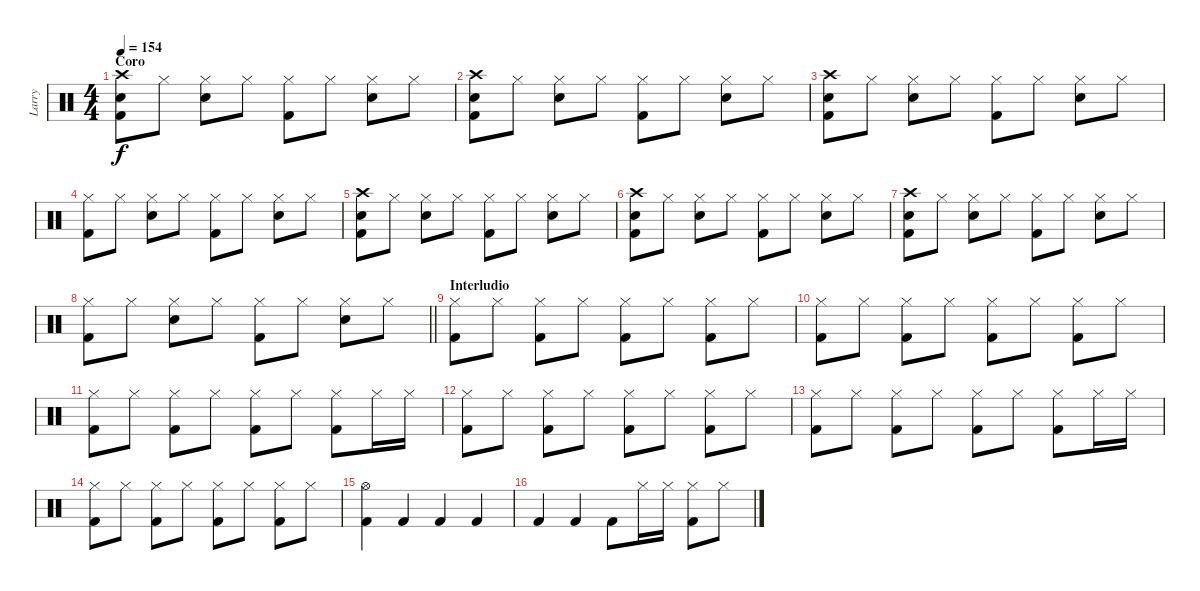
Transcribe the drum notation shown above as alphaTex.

\track ("Larry " "Larry ") {instrument percussion}
\staff {score}
\articulation defaults
\ts (4 4)
\section ("" "Coro")
\tempo 154
\clef neutral
\ks c
("Crash high (hit)" "Snare (hit) 2" "Kick (hit) 2").8{dy f} "Hi-Hat (closed)".8 ("Hi-Hat (closed)" "Snare (hit) 2").8 "Hi-Hat (closed)".8 ("Hi-Hat (closed)" "Kick (hit) 2").8 "Hi-Hat (closed)".8 ("Hi-Hat (closed)" "Snare (hit) 2").8 "Hi-Hat (closed)".8 |
("Crash high (hit)" "Snare (hit) 2" "Kick (hit) 2").8 "Hi-Hat (closed)".8 ("Hi-Hat (closed)" "Snare (hit) 2").8 "Hi-Hat (closed)".8 ("Hi-Hat (closed)" "Kick (hit) 2").8 "Hi-Hat (closed)".8 ("Hi-Hat (closed)" "Snare (hit) 2").8 "Hi-Hat (closed)".8 |
("Crash high (hit)" "Snare (hit) 2" "Kick (hit) 2").8 "Hi-Hat (closed)".8 ("Hi-Hat (closed)" "Snare (hit) 2").8 "Hi-Hat (closed)".8 ("Hi-Hat (closed)" "Kick (hit) 2").8 "Hi-Hat (closed)".8 ("Hi-Hat (closed)" "Snare (hit) 2").8 "Hi-Hat (closed)".8 |
("Hi-Hat (closed)" "Kick (hit) 2").8 "Hi-Hat (closed)".8 ("Hi-Hat (closed)" "Snare (hit) 2").8 "Hi-Hat (closed)".8 ("Hi-Hat (closed)" "Kick (hit) 2").8 "Hi-Hat (closed)".8 ("Hi-Hat (closed)" "Snare (hit) 2").8 "Hi-Hat (closed)".8 |
("Crash high (hit)" "Snare (hit) 2" "Kick (hit) 2").8 "Hi-Hat (closed)".8 ("Hi-Hat (closed)" "Snare (hit) 2").8 "Hi-Hat (closed)".8 ("Hi-Hat (closed)" "Kick (hit) 2").8 "Hi-Hat (closed)".8 ("Hi-Hat (closed)" "Snare (hit) 2").8 "Hi-Hat (closed)".8 |
("Crash high (hit)" "Snare (hit) 2" "Kick (hit) 2").8 "Hi-Hat (closed)".8 ("Hi-Hat (closed)" "Snare (hit) 2").8 "Hi-Hat (closed)".8 ("Hi-Hat (closed)" "Kick (hit) 2").8 "Hi-Hat (closed)".8 ("Hi-Hat (closed)" "Snare (hit) 2").8 "Hi-Hat (closed)".8 |
("Crash high (hit)" "Snare (hit) 2" "Kick (hit) 2").8 "Hi-Hat (closed)".8 ("Hi-Hat (closed)" "Snare (hit) 2").8 "Hi-Hat (closed)".8 ("Hi-Hat (closed)" "Kick (hit) 2").8 "Hi-Hat (closed)".8 ("Hi-Hat (closed)" "Snare (hit) 2").8 "Hi-Hat (closed)".8 |
\barLineRight lightlight
("Hi-Hat (closed)" "Kick (hit) 2").8 "Hi-Hat (closed)".8 ("Hi-Hat (closed)" "Snare (hit) 2").8 "Hi-Hat (closed)".8 ("Hi-Hat (closed)" "Kick (hit) 2").8 "Hi-Hat (closed)".8 ("Hi-Hat (closed)" "Snare (hit) 2").8 "Hi-Hat (closed)".8 |
\section ("" "Interludio")
("Hi-Hat (closed)" "Kick (hit) 2").8 "Hi-Hat (closed)".8 ("Hi-Hat (closed)" "Kick (hit) 2").8 "Hi-Hat (closed)".8 ("Hi-Hat (closed)" "Kick (hit) 2").8 "Hi-Hat (closed)".8 ("Hi-Hat (closed)" "Kick (hit) 2").8 "Hi-Hat (closed)".8 |
("Hi-Hat (closed)" "Kick (hit) 2").8 "Hi-Hat (closed)".8 ("Hi-Hat (closed)" "Kick (hit) 2").8 "Hi-Hat (closed)".8 ("Hi-Hat (closed)" "Kick (hit) 2").8 "Hi-Hat (closed)".8 ("Hi-Hat (closed)" "Kick (hit) 2").8 "Hi-Hat (closed)".8 |
("Hi-Hat (closed)" "Kick (hit) 2").8 "Hi-Hat (closed)".8 ("Hi-Hat (closed)" "Kick (hit) 2").8 "Hi-Hat (closed)".8 ("Hi-Hat (closed)" "Kick (hit) 2").8 "Hi-Hat (closed)".8 ("Hi-Hat (closed)" "Kick (hit) 2").8 "Hi-Hat (closed)".16 "Hi-Hat (closed)".16 |
("Hi-Hat (closed)" "Kick (hit) 2").8 "Hi-Hat (closed)".8 ("Hi-Hat (closed)" "Kick (hit) 2").8 "Hi-Hat (closed)".8 ("Hi-Hat (closed)" "Kick (hit) 2").8 "Hi-Hat (closed)".8 ("Hi-Hat (closed)" "Kick (hit) 2").8 "Hi-Hat (closed)".8 |
("Hi-Hat (closed)" "Kick (hit) 2").8 "Hi-Hat (closed)".8 ("Hi-Hat (closed)" "Kick (hit) 2").8 "Hi-Hat (closed)".8 ("Hi-Hat (closed)" "Kick (hit) 2").8 "Hi-Hat (closed)".8 ("Hi-Hat (closed)" "Kick (hit) 2").8 "Hi-Hat (closed)".16 "Hi-Hat (closed)".16 |
("Hi-Hat (closed)" "Kick (hit) 2").8 "Hi-Hat (closed)".8 ("Hi-Hat (closed)" "Kick (hit) 2").8 "Hi-Hat (closed)".8 ("Hi-Hat (closed)" "Kick (hit) 2").8 "Hi-Hat (closed)".8 ("Hi-Hat (closed)" "Kick (hit) 2").8 "Hi-Hat (closed)".8 |
("Hi-Hat (open)" "Kick (hit) 2").4 "Kick (hit) 2".4 "Kick (hit) 2".4 "Kick (hit) 2".4 |
"Kick (hit) 2".4 "Kick (hit) 2".4 "Kick (hit) 2".8 "Hi-Hat (closed)".16 "Hi-Hat (closed)".16 ("Hi-Hat (closed)" "Kick (hit) 2").8 "Hi-Hat (closed)".8
